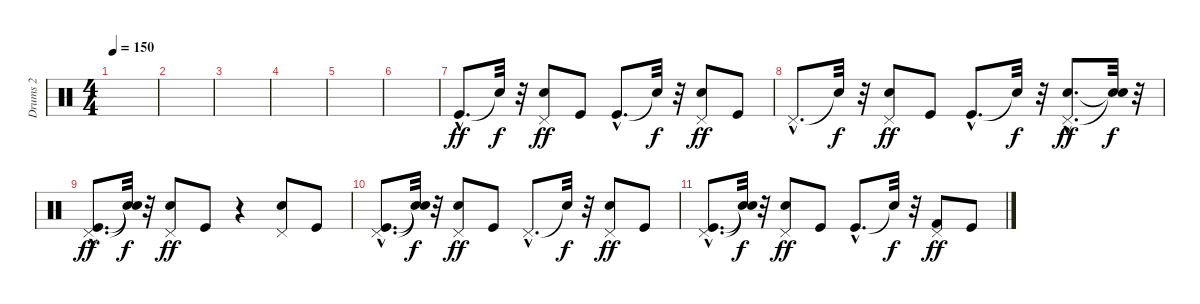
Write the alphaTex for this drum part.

\track ("Drums 2" "Drums 2") {instrument percussion}
\staff {score}
\articulation defaults
\ts (4 4)
\tempo 150
\clef neutral
\ks c
|
|
|
|
|
|
"Kick (hit)"{hac}.8{d dy ff} "Snare (hit)"{t}.32{dy f} r.32 ("Snare (hit) 2" "Pedal Hi-Hat (hit)").8{dy ff} "Kick (hit)".8 "Kick (hit)"{hac}.8{d} "Snare (hit)"{t}.32{dy f} r.32 ("Snare (hit) 2" "Pedal Hi-Hat (hit)").8{dy ff} "Kick (hit)".8 |
"Pedal Hi-Hat (hit)"{hac}.8{d} "Snare (hit)"{t}.32{dy f} r.32 ("Snare (hit) 2" "Pedal Hi-Hat (hit)").8{dy ff} "Kick (hit)".8 "Kick (hit)"{hac}.8{d} "Snare (hit)"{t}.32{dy f} r.32 ("Snare (hit) 2"{hac} "Pedal Hi-Hat (hit)"{hac}).8{d dy ff} ("Snare (hit)"{t} "Snare (hit)"{t}).32{dy f} r.32 |
("Kick (hit)"{hac} "Pedal Hi-Hat (hit)"{hac}).8{d dy ff} ("Snare (hit)"{t} "Snare (hit)"{t}).32{dy f} r.32 ("Snare (hit) 2" "Pedal Hi-Hat (hit)").8{dy ff} "Kick (hit)".8 r.4 ("Snare (hit) 2" "Pedal Hi-Hat (hit)").8 "Kick (hit)".8 |
("Kick (hit)"{hac} "Pedal Hi-Hat (hit)"{hac}).8{d} ("Snare (hit)"{t} "Snare (hit)"{t}).32{dy f} r.32 ("Snare (hit) 2" "Pedal Hi-Hat (hit)").8{dy ff} "Kick (hit)".8 "Pedal Hi-Hat (hit)"{hac}.8{d} "Snare (hit)"{t}.32{dy f} r.32 ("Snare (hit) 2" "Pedal Hi-Hat (hit)").8{dy ff} "Kick (hit)".8 |
("Kick (hit)"{hac} "Pedal Hi-Hat (hit)"{hac}).8{d} ("Snare (hit)"{t} "Snare (hit)"{t}).32{dy f} r.32 ("Snare (hit) 2" "Pedal Hi-Hat (hit)").8{dy ff} "Kick (hit)".8 "Kick (hit)"{hac}.8{d} "Snare (hit)"{t}.32{dy f} r.32 ("Kick (hit) 2" "Pedal Hi-Hat (hit)").8{dy ff} "Kick (hit)".8
